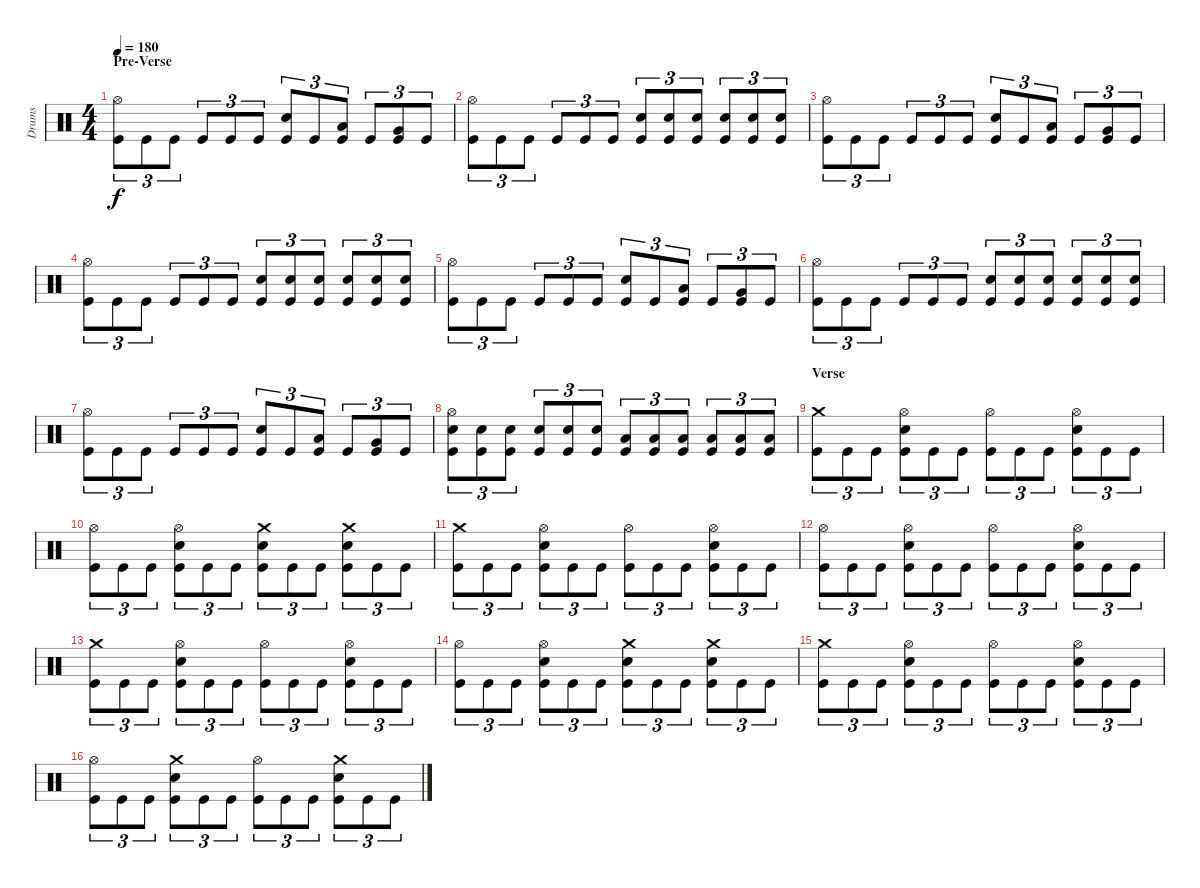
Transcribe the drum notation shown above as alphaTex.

\track ("Drums" "Drums") {instrument percussion}
\staff {score}
\articulation defaults
\ts (4 4)
\section ("" "Pre-Verse")
\tempo 180
\clef neutral
\ks c
("Hi-Hat (open)" "Kick (hit)").8{tu (3 2) dy f} "Kick (hit)".8{tu (3 2)} "Kick (hit)".8{tu (3 2)} "Kick (hit)".8{tu (3 2)} "Kick (hit)".8{tu (3 2)} "Kick (hit)".8{tu (3 2)} ("Electric Snare (hit)" "Kick (hit)").8{tu (3 2)} "Kick (hit)".8{tu (3 2)} ("Low Tom (hit)" "Kick (hit)").8{tu (3 2)} "Kick (hit)".8{tu (3 2)} ("Very Low Tom (hit)" "Kick (hit)").8{tu (3 2)} "Kick (hit)".8{tu (3 2)} |
("Hi-Hat (open)" "Kick (hit)").8{tu (3 2)} "Kick (hit)".8{tu (3 2)} "Kick (hit)".8{tu (3 2)} "Kick (hit)".8{tu (3 2)} "Kick (hit)".8{tu (3 2)} "Kick (hit)".8{tu (3 2)} ("Electric Snare (hit)" "Kick (hit)").8{tu (3 2)} ("Electric Snare (hit)" "Kick (hit)").8{tu (3 2)} ("Electric Snare (hit)" "Kick (hit)").8{tu (3 2)} ("Electric Snare (hit)" "Kick (hit)").8{tu (3 2)} ("Electric Snare (hit)" "Kick (hit)").8{tu (3 2)} ("Electric Snare (hit)" "Kick (hit)").8{tu (3 2)} |
("Hi-Hat (open)" "Kick (hit)").8{tu (3 2)} "Kick (hit)".8{tu (3 2)} "Kick (hit)".8{tu (3 2)} "Kick (hit)".8{tu (3 2)} "Kick (hit)".8{tu (3 2)} "Kick (hit)".8{tu (3 2)} ("Electric Snare (hit)" "Kick (hit)").8{tu (3 2)} "Kick (hit)".8{tu (3 2)} ("Low Tom (hit)" "Kick (hit)").8{tu (3 2)} "Kick (hit)".8{tu (3 2)} ("Very Low Tom (hit)" "Kick (hit)").8{tu (3 2)} "Kick (hit)".8{tu (3 2)} |
("Hi-Hat (open)" "Kick (hit)").8{tu (3 2)} "Kick (hit)".8{tu (3 2)} "Kick (hit)".8{tu (3 2)} "Kick (hit)".8{tu (3 2)} "Kick (hit)".8{tu (3 2)} "Kick (hit)".8{tu (3 2)} ("Electric Snare (hit)" "Kick (hit)").8{tu (3 2)} ("Electric Snare (hit)" "Kick (hit)").8{tu (3 2)} ("Electric Snare (hit)" "Kick (hit)").8{tu (3 2)} ("Electric Snare (hit)" "Kick (hit)").8{tu (3 2)} ("Electric Snare (hit)" "Kick (hit)").8{tu (3 2)} ("Electric Snare (hit)" "Kick (hit)").8{tu (3 2)} |
("Hi-Hat (open)" "Kick (hit)").8{tu (3 2)} "Kick (hit)".8{tu (3 2)} "Kick (hit)".8{tu (3 2)} "Kick (hit)".8{tu (3 2)} "Kick (hit)".8{tu (3 2)} "Kick (hit)".8{tu (3 2)} ("Electric Snare (hit)" "Kick (hit)").8{tu (3 2)} "Kick (hit)".8{tu (3 2)} ("Low Tom (hit)" "Kick (hit)").8{tu (3 2)} "Kick (hit)".8{tu (3 2)} ("Very Low Tom (hit)" "Kick (hit)").8{tu (3 2)} "Kick (hit)".8{tu (3 2)} |
("Hi-Hat (open)" "Kick (hit)").8{tu (3 2)} "Kick (hit)".8{tu (3 2)} "Kick (hit)".8{tu (3 2)} "Kick (hit)".8{tu (3 2)} "Kick (hit)".8{tu (3 2)} "Kick (hit)".8{tu (3 2)} ("Electric Snare (hit)" "Kick (hit)").8{tu (3 2)} ("Electric Snare (hit)" "Kick (hit)").8{tu (3 2)} ("Electric Snare (hit)" "Kick (hit)").8{tu (3 2)} ("Electric Snare (hit)" "Kick (hit)").8{tu (3 2)} ("Electric Snare (hit)" "Kick (hit)").8{tu (3 2)} ("Electric Snare (hit)" "Kick (hit)").8{tu (3 2)} |
("Hi-Hat (open)" "Kick (hit)").8{tu (3 2)} "Kick (hit)".8{tu (3 2)} "Kick (hit)".8{tu (3 2)} "Kick (hit)".8{tu (3 2)} "Kick (hit)".8{tu (3 2)} "Kick (hit)".8{tu (3 2)} ("Electric Snare (hit)" "Kick (hit)").8{tu (3 2)} "Kick (hit)".8{tu (3 2)} ("Low Tom (hit)" "Kick (hit)").8{tu (3 2)} "Kick (hit)".8{tu (3 2)} ("Very Low Tom (hit)" "Kick (hit)").8{tu (3 2)} "Kick (hit)".8{tu (3 2)} |
("Hi-Hat (open)" "Electric Snare (hit)" "Kick (hit)").8{tu (3 2)} ("Electric Snare (hit)" "Kick (hit)").8{tu (3 2)} ("Electric Snare (hit)" "Kick (hit)").8{tu (3 2)} ("Electric Snare (hit)" "Kick (hit)").8{tu (3 2)} ("Electric Snare (hit)" "Kick (hit)").8{tu (3 2)} ("Electric Snare (hit)" "Kick (hit)").8{tu (3 2)} ("Low Tom (hit)" "Kick (hit)").8{tu (3 2)} ("Low Tom (hit)" "Kick (hit)").8{tu (3 2)} ("Low Tom (hit)" "Kick (hit)").8{tu (3 2)} ("Low Tom (hit)" "Kick (hit)").8{tu (3 2)} ("Low Tom (hit)" "Kick (hit)").8{tu (3 2)} ("Low Tom (hit)" "Kick (hit)").8{tu (3 2)} |
\section ("" "Verse")
("Crash medium (hit)" "Kick (hit)").8{tu (3 2)} "Kick (hit)".8{tu (3 2)} "Kick (hit)".8{tu (3 2)} ("Hi-Hat (open)" "Electric Snare (hit)" "Kick (hit)").8{tu (3 2)} "Kick (hit)".8{tu (3 2)} "Kick (hit)".8{tu (3 2)} ("Hi-Hat (open)" "Kick (hit)").8{tu (3 2)} "Kick (hit)".8{tu (3 2)} "Kick (hit)".8{tu (3 2)} ("Hi-Hat (open)" "Electric Snare (hit)" "Kick (hit)").8{tu (3 2)} "Kick (hit)".8{tu (3 2)} "Kick (hit)".8{tu (3 2)} |
("Hi-Hat (open)" "Kick (hit)").8{tu (3 2)} "Kick (hit)".8{tu (3 2)} "Kick (hit)".8{tu (3 2)} ("Hi-Hat (open)" "Electric Snare (hit)" "Kick (hit)").8{tu (3 2)} "Kick (hit)".8{tu (3 2)} "Kick (hit)".8{tu (3 2)} ("Crash medium (hit)" "Electric Snare (hit)" "Kick (hit)").8{tu (3 2)} "Kick (hit)".8{tu (3 2)} "Kick (hit)".8{tu (3 2)} ("Crash medium (hit)" "Electric Snare (hit)" "Kick (hit)").8{tu (3 2)} "Kick (hit)".8{tu (3 2)} "Kick (hit)".8{tu (3 2)} |
("Crash medium (hit)" "Kick (hit)").8{tu (3 2)} "Kick (hit)".8{tu (3 2)} "Kick (hit)".8{tu (3 2)} ("Hi-Hat (open)" "Electric Snare (hit)" "Kick (hit)").8{tu (3 2)} "Kick (hit)".8{tu (3 2)} "Kick (hit)".8{tu (3 2)} ("Hi-Hat (open)" "Kick (hit)").8{tu (3 2)} "Kick (hit)".8{tu (3 2)} "Kick (hit)".8{tu (3 2)} ("Hi-Hat (open)" "Electric Snare (hit)" "Kick (hit)").8{tu (3 2)} "Kick (hit)".8{tu (3 2)} "Kick (hit)".8{tu (3 2)} |
("Hi-Hat (open)" "Kick (hit)").8{tu (3 2)} "Kick (hit)".8{tu (3 2)} "Kick (hit)".8{tu (3 2)} ("Hi-Hat (open)" "Electric Snare (hit)" "Kick (hit)").8{tu (3 2)} "Kick (hit)".8{tu (3 2)} "Kick (hit)".8{tu (3 2)} ("Hi-Hat (open)" "Kick (hit)").8{tu (3 2)} "Kick (hit)".8{tu (3 2)} "Kick (hit)".8{tu (3 2)} ("Hi-Hat (open)" "Electric Snare (hit)" "Kick (hit)").8{tu (3 2)} "Kick (hit)".8{tu (3 2)} "Kick (hit)".8{tu (3 2)} |
("Crash medium (hit)" "Kick (hit)").8{tu (3 2)} "Kick (hit)".8{tu (3 2)} "Kick (hit)".8{tu (3 2)} ("Hi-Hat (open)" "Electric Snare (hit)" "Kick (hit)").8{tu (3 2)} "Kick (hit)".8{tu (3 2)} "Kick (hit)".8{tu (3 2)} ("Hi-Hat (open)" "Kick (hit)").8{tu (3 2)} "Kick (hit)".8{tu (3 2)} "Kick (hit)".8{tu (3 2)} ("Hi-Hat (open)" "Electric Snare (hit)" "Kick (hit)").8{tu (3 2)} "Kick (hit)".8{tu (3 2)} "Kick (hit)".8{tu (3 2)} |
("Hi-Hat (open)" "Kick (hit)").8{tu (3 2)} "Kick (hit)".8{tu (3 2)} "Kick (hit)".8{tu (3 2)} ("Hi-Hat (open)" "Electric Snare (hit)" "Kick (hit)").8{tu (3 2)} "Kick (hit)".8{tu (3 2)} "Kick (hit)".8{tu (3 2)} ("Crash medium (hit)" "Electric Snare (hit)" "Kick (hit)").8{tu (3 2)} "Kick (hit)".8{tu (3 2)} "Kick (hit)".8{tu (3 2)} ("Crash medium (hit)" "Electric Snare (hit)" "Kick (hit)").8{tu (3 2)} "Kick (hit)".8{tu (3 2)} "Kick (hit)".8{tu (3 2)} |
("Crash medium (hit)" "Kick (hit)").8{tu (3 2)} "Kick (hit)".8{tu (3 2)} "Kick (hit)".8{tu (3 2)} ("Hi-Hat (open)" "Electric Snare (hit)" "Kick (hit)").8{tu (3 2)} "Kick (hit)".8{tu (3 2)} "Kick (hit)".8{tu (3 2)} ("Hi-Hat (open)" "Kick (hit)").8{tu (3 2)} "Kick (hit)".8{tu (3 2)} "Kick (hit)".8{tu (3 2)} ("Hi-Hat (open)" "Electric Snare (hit)" "Kick (hit)").8{tu (3 2)} "Kick (hit)".8{tu (3 2)} "Kick (hit)".8{tu (3 2)} |
("Hi-Hat (open)" "Kick (hit)").8{tu (3 2)} "Kick (hit)".8{tu (3 2)} "Kick (hit)".8{tu (3 2)} ("Crash medium (hit)" "Electric Snare (hit)" "Kick (hit)").8{tu (3 2)} "Kick (hit)".8{tu (3 2)} "Kick (hit)".8{tu (3 2)} ("Hi-Hat (open)" "Kick (hit)").8{tu (3 2)} "Kick (hit)".8{tu (3 2)} "Kick (hit)".8{tu (3 2)} ("Crash medium (hit)" "Electric Snare (hit)" "Kick (hit)").8{tu (3 2)} "Kick (hit)".8{tu (3 2)} "Kick (hit)".8{tu (3 2)}
